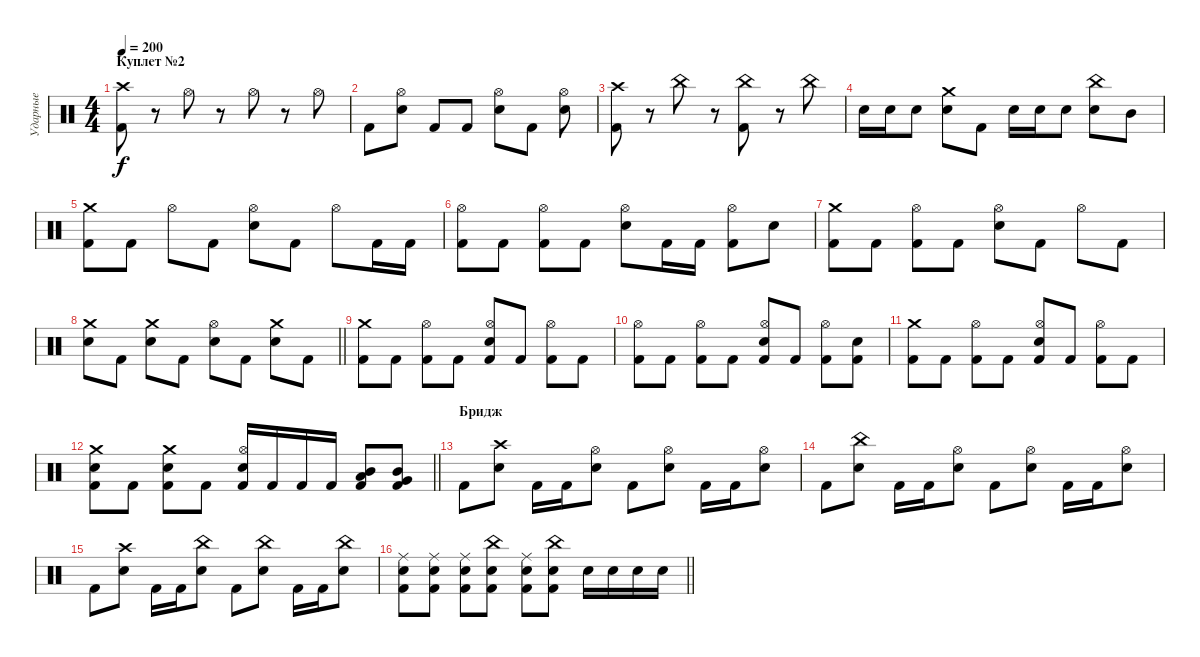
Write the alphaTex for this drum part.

\track ("Ударные" "Ударные") {instrument percussion}
\staff {score}
\articulation defaults
\ts (4 4)
\section ("" "Куплет №2")
\tempo 200
\clef neutral
\ks c
("Kick (hit) 2" "Crash high (hit)").8{dy f} r.8 "Hi-Hat (open)".8 r.8 "Hi-Hat (open)".8 r.8 "Hi-Hat (open)".8 |
"Kick (hit) 2".8 ("Electric Snare (hit)" "Hi-Hat (open)").8 "Kick (hit) 2".8 "Kick (hit) 2".8 ("Electric Snare (hit)" "Hi-Hat (open)").8 "Kick (hit) 2".8 ("Electric Snare (hit)" "Hi-Hat (open)").8 |
("Kick (hit) 2" "Crash high (hit)").8 r.8 "China (hit)".8 r.8 ("Kick (hit) 2" "China (hit)").8 r.8 "China (hit)".8 |
"Electric Snare (hit)".16 "Electric Snare (hit)".16 "Electric Snare (hit)".8 ("Electric Snare (hit)" "Crash medium (hit)").8 "Kick (hit) 2".8 "Electric Snare (hit)".16 "Electric Snare (hit)".16 "Electric Snare (hit)".8 ("Electric Snare (hit)" "China (hit)").8 "Mid Tom (hit)".8 |
("Crash medium (hit)" "Kick (hit) 2").8 "Kick (hit) 2".8 "Hi-Hat (open)".8 "Kick (hit) 2".8 ("Hi-Hat (open)" "Electric Snare (hit)").8 "Kick (hit) 2".8 "Hi-Hat (open)".8 "Kick (hit) 2".16 "Kick (hit) 2".16 |
("Hi-Hat (open)" "Kick (hit) 2").8 "Kick (hit) 2".8 ("Hi-Hat (open)" "Kick (hit) 2").8 "Kick (hit) 2".8 ("Hi-Hat (open)" "Electric Snare (hit)").8 "Kick (hit) 2".16 "Kick (hit) 2".16 ("Hi-Hat (open)" "Kick (hit) 2").8 "Electric Snare (hit)".8 |
("Crash medium (hit)" "Kick (hit) 2").8 "Kick (hit) 2".8 ("Hi-Hat (open)" "Kick (hit) 2").8 "Kick (hit) 2".8 ("Hi-Hat (open)" "Electric Snare (hit)").8 "Kick (hit) 2".8 "Hi-Hat (open)".8 "Kick (hit) 2".8 |
\barLineRight lightlight
("Crash medium (hit)" "Electric Snare (hit)").8 "Kick (hit) 2".8 ("Crash medium (hit)" "Electric Snare (hit)").8 "Kick (hit) 2".8 ("Hi-Hat (open)" "Electric Snare (hit)").8 "Kick (hit) 2".8 ("Crash medium (hit)" "Electric Snare (hit)").8 "Kick (hit) 2".8 |
("Crash medium (hit)" "Kick (hit) 2").8 "Kick (hit) 2".8 ("Hi-Hat (open)" "Kick (hit) 2").8 "Kick (hit) 2".8 ("Hi-Hat (open)" "Electric Snare (hit)" "Kick (hit) 2").8 "Kick (hit) 2".8 ("Hi-Hat (open)" "Kick (hit) 2").8 "Kick (hit) 2".8 |
("Hi-Hat (open)" "Kick (hit) 2").8 "Kick (hit) 2".8 ("Hi-Hat (open)" "Kick (hit) 2").8 "Kick (hit) 2".8 ("Hi-Hat (open)" "Electric Snare (hit)" "Kick (hit) 2").8 "Kick (hit) 2".8 ("Hi-Hat (open)" "Kick (hit) 2").8 ("Electric Snare (hit)" "Kick (hit) 2").8 |
("Crash medium (hit)" "Kick (hit) 2").8 "Kick (hit) 2".8 ("Hi-Hat (open)" "Kick (hit) 2").8 "Kick (hit) 2".8 ("Hi-Hat (open)" "Electric Snare (hit)" "Kick (hit) 2").8 "Kick (hit) 2".8 ("Hi-Hat (open)" "Kick (hit) 2").8 "Kick (hit) 2".8 |
\barLineRight lightlight
("Crash medium (hit)" "Electric Snare (hit)" "Kick (hit) 2").8 "Kick (hit) 2".8 ("Crash medium (hit)" "Electric Snare (hit)" "Kick (hit) 2").8 "Kick (hit) 2".8 ("Hi-Hat (open)" "Electric Snare (hit)" "Kick (hit) 2").16 "Kick (hit) 2".16 "Kick (hit) 2".16 "Kick (hit) 2".16 ("Low Tom (hit)" "Mid Tom (hit)" "Kick (hit) 2").8 ("Mid Tom (hit)" "Very Low Tom (hit)" "Kick (hit) 2").8 |
\section ("" "Бридж")
"Kick (hit) 2".8 ("Electric Snare (hit)" "Crash high (hit)").8 "Kick (hit) 2".16 "Kick (hit) 2".16 ("Electric Snare (hit)" "Hi-Hat (open)").8 "Kick (hit) 2".8 ("Electric Snare (hit)" "Hi-Hat (open)").8 "Kick (hit) 2".16 "Kick (hit) 2".16 ("Electric Snare (hit)" "Hi-Hat (open)").8 |
"Kick (hit) 2".8 ("Electric Snare (hit)" "China (hit)").8 "Kick (hit) 2".16 "Kick (hit) 2".16 ("Electric Snare (hit)" "Hi-Hat (open)").8 "Kick (hit) 2".8 ("Electric Snare (hit)" "Hi-Hat (open)").8 "Kick (hit) 2".16 "Kick (hit) 2".16 ("Electric Snare (hit)" "Hi-Hat (open)").8 |
"Kick (hit) 2".8 ("Electric Snare (hit)" "Crash high (hit)").8 "Kick (hit) 2".16 "Kick (hit) 2".16 ("Electric Snare (hit)" "China (hit)").8 "Kick (hit) 2".8 ("Electric Snare (hit)" "China (hit)").8 "Kick (hit) 2".16 "Kick (hit) 2".16 ("Electric Snare (hit)" "China (hit)").8 |
\barLineRight lightlight
("Kick (hit) 2" "Electric Snare (hit)" "Ride (middle)").8 ("Kick (hit) 2" "Electric Snare (hit)" "Ride (middle)").8 ("Kick (hit) 2" "Electric Snare (hit)" "Ride (middle)").8 ("Kick (hit) 2" "Electric Snare (hit)" "China (hit)").8 ("Kick (hit) 2" "Electric Snare (hit)" "Ride (middle)").8 ("Kick (hit) 2" "Electric Snare (hit)" "China (hit)").8 "Electric Snare (hit)".16 "Electric Snare (hit)".16 "Electric Snare (hit)".16 "Electric Snare (hit)".16
